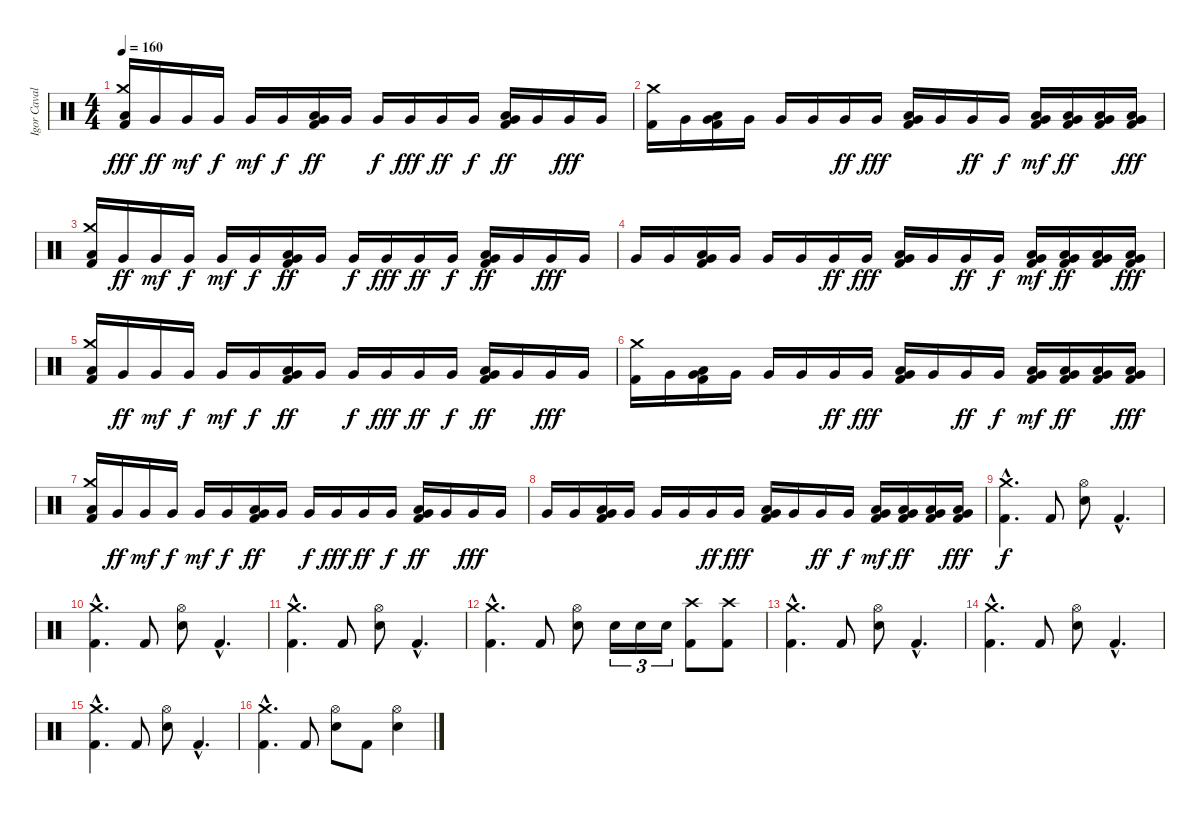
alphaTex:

\track ("Igor Cavalera" "Igor Caval") {instrument percussion}
\staff {score}
\articulation defaults
\ts (4 4)
\tempo 160
\clef neutral
\ks c
("Low Floor Tom (hit)" "Crash medium (hit)" "Kick (hit) 2").16{dy fff} "Very Low Tom (hit)".16{dy ff} "Very Low Tom (hit)".16{dy mf} "Very Low Tom (hit)".16{dy f} "Very Low Tom (hit)".16{dy mf} "Very Low Tom (hit)".16{dy f} ("Low Floor Tom (hit)" "Very Low Tom (hit)" "Kick (hit) 2").16{dy ff} "Very Low Tom (hit)".16 "Very Low Tom (hit)".16{dy f} "Very Low Tom (hit)".16{dy fff} "Very Low Tom (hit)".16{dy ff} "Very Low Tom (hit)".16{dy f} ("Low Floor Tom (hit)" "Very Low Tom (hit)" "Kick (hit) 2").16{dy ff} "Very Low Tom (hit)".16 "Very Low Tom (hit)".16{dy fff} "Very Low Tom (hit)".16 |
("Kick (hit) 2" "Crash medium (hit)").16 "Very Low Tom (hit)".16 ("Low Floor Tom (hit)" "Very Low Tom (hit)" "Kick (hit) 2").16 "Very Low Tom (hit)".16 "Very Low Tom (hit)".16 "Very Low Tom (hit)".16 "Very Low Tom (hit)".16{dy ff} "Very Low Tom (hit)".16{dy fff} ("Kick (hit) 2" "Very Low Tom (hit)" "Low Floor Tom (hit)").16 "Very Low Tom (hit)".16 "Very Low Tom (hit)".16{dy ff} "Very Low Tom (hit)".16{dy f} ("Kick (hit) 2" "Very Low Tom (hit)" "Low Floor Tom (hit)").16{dy mf} ("Low Floor Tom (hit)" "Very Low Tom (hit)" "Kick (hit) 2").16{dy ff} ("Low Floor Tom (hit)" "Very Low Tom (hit)" "Kick (hit) 2").16 ("Low Floor Tom (hit)" "Very Low Tom (hit)" "Kick (hit) 2").16{dy fff} |
("Low Floor Tom (hit)" "Crash medium (hit)" "Kick (hit) 2").16 "Very Low Tom (hit)".16{dy ff} "Very Low Tom (hit)".16{dy mf} "Very Low Tom (hit)".16{dy f} "Very Low Tom (hit)".16{dy mf} "Very Low Tom (hit)".16{dy f} ("Low Floor Tom (hit)" "Very Low Tom (hit)" "Kick (hit) 2").16{dy ff} "Very Low Tom (hit)".16 "Very Low Tom (hit)".16{dy f} "Very Low Tom (hit)".16{dy fff} "Very Low Tom (hit)".16{dy ff} "Very Low Tom (hit)".16{dy f} ("Low Floor Tom (hit)" "Very Low Tom (hit)" "Kick (hit) 2").16{dy ff} "Very Low Tom (hit)".16 "Very Low Tom (hit)".16{dy fff} "Very Low Tom (hit)".16 |
"Very Low Tom (hit)".16 "Very Low Tom (hit)".16 ("Low Floor Tom (hit)" "Very Low Tom (hit)" "Kick (hit) 2").16 "Very Low Tom (hit)".16 "Very Low Tom (hit)".16 "Very Low Tom (hit)".16 "Very Low Tom (hit)".16{dy ff} "Very Low Tom (hit)".16{dy fff} ("Kick (hit) 2" "Very Low Tom (hit)" "Low Floor Tom (hit)").16 "Very Low Tom (hit)".16 "Very Low Tom (hit)".16{dy ff} "Very Low Tom (hit)".16{dy f} ("Kick (hit) 2" "Very Low Tom (hit)" "Low Floor Tom (hit)").16{dy mf} ("Low Floor Tom (hit)" "Very Low Tom (hit)" "Kick (hit) 2").16{dy ff} ("Low Floor Tom (hit)" "Very Low Tom (hit)" "Kick (hit) 2").16 ("Low Floor Tom (hit)" "Very Low Tom (hit)" "Kick (hit) 2").16{dy fff} |
("Low Floor Tom (hit)" "Crash medium (hit)" "Kick (hit) 2").16 "Very Low Tom (hit)".16{dy ff} "Very Low Tom (hit)".16{dy mf} "Very Low Tom (hit)".16{dy f} "Very Low Tom (hit)".16{dy mf} "Very Low Tom (hit)".16{dy f} ("Low Floor Tom (hit)" "Very Low Tom (hit)" "Kick (hit) 2").16{dy ff} "Very Low Tom (hit)".16 "Very Low Tom (hit)".16{dy f} "Very Low Tom (hit)".16{dy fff} "Very Low Tom (hit)".16{dy ff} "Very Low Tom (hit)".16{dy f} ("Low Floor Tom (hit)" "Very Low Tom (hit)" "Kick (hit) 2").16{dy ff} "Very Low Tom (hit)".16 "Very Low Tom (hit)".16{dy fff} "Very Low Tom (hit)".16 |
("Kick (hit) 2" "Crash medium (hit)").16 "Very Low Tom (hit)".16 ("Low Floor Tom (hit)" "Very Low Tom (hit)" "Kick (hit) 2").16 "Very Low Tom (hit)".16 "Very Low Tom (hit)".16 "Very Low Tom (hit)".16 "Very Low Tom (hit)".16{dy ff} "Very Low Tom (hit)".16{dy fff} ("Kick (hit) 2" "Very Low Tom (hit)" "Low Floor Tom (hit)").16 "Very Low Tom (hit)".16 "Very Low Tom (hit)".16{dy ff} "Very Low Tom (hit)".16{dy f} ("Kick (hit) 2" "Very Low Tom (hit)" "Low Floor Tom (hit)").16{dy mf} ("Low Floor Tom (hit)" "Very Low Tom (hit)" "Kick (hit) 2").16{dy ff} ("Low Floor Tom (hit)" "Very Low Tom (hit)" "Kick (hit) 2").16 ("Low Floor Tom (hit)" "Very Low Tom (hit)" "Kick (hit) 2").16{dy fff} |
("Low Floor Tom (hit)" "Crash medium (hit)" "Kick (hit) 2").16 "Very Low Tom (hit)".16{dy ff} "Very Low Tom (hit)".16{dy mf} "Very Low Tom (hit)".16{dy f} "Very Low Tom (hit)".16{dy mf} "Very Low Tom (hit)".16{dy f} ("Low Floor Tom (hit)" "Very Low Tom (hit)" "Kick (hit) 2").16{dy ff} "Very Low Tom (hit)".16 "Very Low Tom (hit)".16{dy f} "Very Low Tom (hit)".16{dy fff} "Very Low Tom (hit)".16{dy ff} "Very Low Tom (hit)".16{dy f} ("Low Floor Tom (hit)" "Very Low Tom (hit)" "Kick (hit) 2").16{dy ff} "Very Low Tom (hit)".16 "Very Low Tom (hit)".16{dy fff} "Very Low Tom (hit)".16 |
"Very Low Tom (hit)".16 "Very Low Tom (hit)".16 ("Low Floor Tom (hit)" "Very Low Tom (hit)" "Kick (hit) 2").16 "Very Low Tom (hit)".16 "Very Low Tom (hit)".16 "Very Low Tom (hit)".16 "Very Low Tom (hit)".16{dy ff} "Very Low Tom (hit)".16{dy fff} ("Kick (hit) 2" "Very Low Tom (hit)" "Low Floor Tom (hit)").16 "Very Low Tom (hit)".16 "Very Low Tom (hit)".16{dy ff} "Very Low Tom (hit)".16{dy f} ("Kick (hit) 2" "Very Low Tom (hit)" "Low Floor Tom (hit)").16{dy mf} ("Low Floor Tom (hit)" "Very Low Tom (hit)" "Kick (hit) 2").16{dy ff} ("Low Floor Tom (hit)" "Very Low Tom (hit)" "Kick (hit) 2").16 ("Low Floor Tom (hit)" "Very Low Tom (hit)" "Kick (hit) 2").16{dy fff} |
("Kick (hit) 2"{hac} "Crash medium (hit)"{hac}).4{d dy f} "Kick (hit) 2".8 ("Electric Snare (hit)" "Hi-Hat (open)").8 "Kick (hit) 2"{hac}.4{d} |
("Kick (hit) 2"{hac} "Crash medium (hit)"{hac}).4{d} "Kick (hit) 2".8 ("Electric Snare (hit)" "Hi-Hat (open)").8 "Kick (hit) 2"{hac}.4{d} |
("Kick (hit) 2"{hac} "Crash medium (hit)"{hac}).4{d} "Kick (hit) 2".8 ("Electric Snare (hit)" "Hi-Hat (open)").8 "Kick (hit) 2"{hac}.4{d} |
("Kick (hit) 2"{hac} "Crash medium (hit)"{hac}).4{d} "Kick (hit) 2".8 ("Electric Snare (hit)" "Hi-Hat (open)").8 "Electric Snare (hit)".16{tu (3 2)} "Electric Snare (hit)".16{tu (3 2)} "Electric Snare (hit)".16{tu (3 2)} ("Kick (hit) 2" "Crash high (hit)").8 ("Kick (hit) 2" "Crash high (hit)").8 |
("Kick (hit) 2"{hac} "Crash medium (hit)"{hac}).4{d} "Kick (hit) 2".8 ("Electric Snare (hit)" "Hi-Hat (open)").8 "Kick (hit) 2"{hac}.4{d} |
("Kick (hit) 2"{hac} "Crash medium (hit)"{hac}).4{d} "Kick (hit) 2".8 ("Electric Snare (hit)" "Hi-Hat (open)").8 "Kick (hit) 2"{hac}.4{d} |
("Kick (hit) 2"{hac} "Crash medium (hit)"{hac}).4{d} "Kick (hit) 2".8 ("Electric Snare (hit)" "Hi-Hat (open)").8 "Kick (hit) 2"{hac}.4{d} |
("Kick (hit) 2"{hac} "Crash medium (hit)"{hac}).4{d} "Kick (hit) 2".8 ("Electric Snare (hit)" "Hi-Hat (open)").8 "Kick (hit) 2".8 ("Electric Snare (hit)" "Hi-Hat (open)").4
